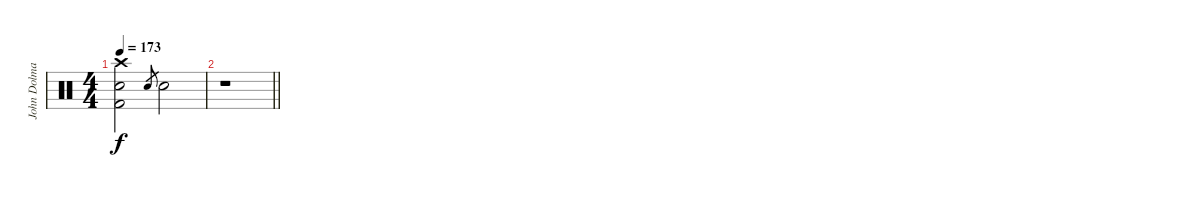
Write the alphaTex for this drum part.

\track ("John Dolmayan" "John Dolma") {instrument percussion}
\staff {score}
\articulation defaults
\ts (4 4)
\tempo 173
\clef neutral
\ks c
("Crash high (hit)" "Electric Snare (hit)" "Kick (hit) 2").2{dy f} "Electric Snare (hit)".8{gr} "Electric Snare (hit)".2 |
\barLineRight lightlight
r.1
